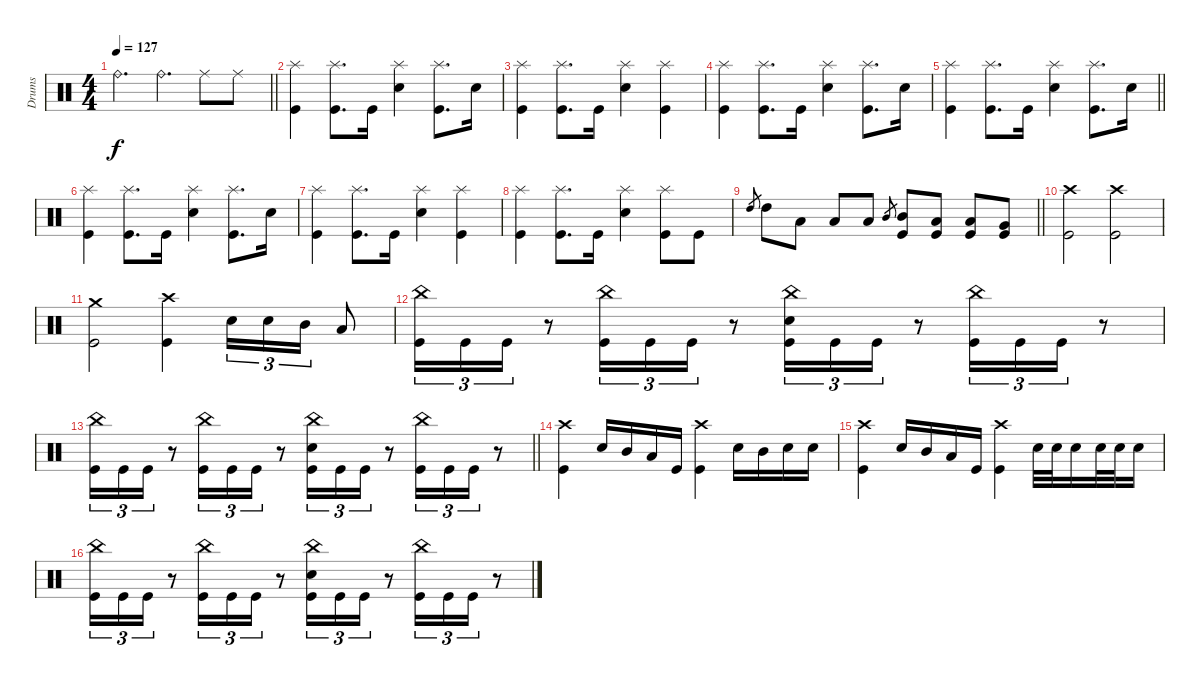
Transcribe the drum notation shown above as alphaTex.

\track ("Drums" "Drums") {instrument percussion}
\staff
\articulation defaults
\ts (4 4)
\tempo 127
\clef neutral
\barLineRight lightlight
\ks c "Ride (bell)".4{d dy f} "Ride (bell)".4{d} "Ride (middle)".8 "Ride (middle)".8
|
\section ("" "")
("Splash (hit)" "Kick (hit)").4 ("Splash (hit)" "Kick (hit)").8{d} "Kick (hit)".16 ("Splash (hit)" "Electric Snare (hit)").4 ("Splash (hit)" "Kick (hit)").8{d} "Electric Snare (hit)".16 |
("Splash (hit)" "Kick (hit)").4 ("Splash (hit)" "Kick (hit)").8{d} "Kick (hit)".16 ("Splash (hit)" "Electric Snare (hit)").4 ("Splash (hit)" "Kick (hit)").4 |
("Splash (hit)" "Kick (hit)").4 ("Splash (hit)" "Kick (hit)").8{d} "Kick (hit)".16 ("Splash (hit)" "Electric Snare (hit)").4 ("Splash (hit)" "Kick (hit)").8{d} "Electric Snare (hit)".16 |
\barLineRight lightlight
("Splash (hit)" "Kick (hit)").4 ("Splash (hit)" "Kick (hit)").8{d} "Kick (hit)".16 ("Splash (hit)" "Electric Snare (hit)").4 ("Splash (hit)" "Kick (hit)").8{d} "Electric Snare (hit)".16 |
("Splash (hit)" "Kick (hit)").4 ("Splash (hit)" "Kick (hit)").8{d} "Kick (hit)".16 ("Splash (hit)" "Electric Snare (hit)").4 ("Splash (hit)" "Kick (hit)").8{d} "Electric Snare (hit)".16 |
("Splash (hit)" "Kick (hit)").4 ("Splash (hit)" "Kick (hit)").8{d} "Kick (hit)".16 ("Splash (hit)" "Electric Snare (hit)").4 ("Splash (hit)" "Kick (hit)").4 |
("Splash (hit)" "Kick (hit)").4 ("Splash (hit)" "Kick (hit)").8{d} "Kick (hit)".16 ("Splash (hit)" "Electric Snare (hit)").4 ("Splash (hit)" "Kick (hit)").8 "Kick (hit)".8 |
\barLineRight lightlight "High Tom (hit)".8{gr} "High Tom (hit)".8 "Low Tom (hit)".8 "Low Tom (hit)".8 "Low Tom (hit)".8 "Mid Tom (hit)".8{gr}
("Mid Tom (hit)" "Kick (hit)").8 ("Low Tom (hit)" "Kick (hit)").8 ("Low Tom (hit)" "Kick (hit)").8 ("Very Low Tom (hit)" "Kick (hit)").8 |
\section ("" "")
("Crash high (hit)" "Kick (hit)").2 ("Crash high (hit)" "Kick (hit)").2 |
("Crash medium (hit)" "Kick (hit)").2 ("Crash high (hit)" "Kick (hit)").4 "Electric Snare (hit)".16{tu (3 2)} "Electric Snare (hit)".16{tu (3 2)} "Mid Tom (hit)".16{tu (3 2)} "Low Tom (hit)".8 |
("China (hit)" "Kick (hit)").16{tu (3 2)} "Kick (hit)".16{tu (3 2)} "Kick (hit)".16{tu (3 2)} r.8 ("China (hit)" "Kick (hit)").16{tu (3 2)} "Kick (hit)".16{tu (3 2)} "Kick (hit)".16{tu (3 2)} r.8 ("China (hit)" "Electric Snare (hit)" "Kick (hit)").16{tu (3 2)} "Kick (hit)".16{tu (3 2)} "Kick (hit)".16{tu (3 2)} r.8 ("China (hit)" "Kick (hit)").16{tu (3 2)} "Kick (hit)".16{tu (3 2)} "Kick (hit)".16{tu (3 2)} r.8 |
\barLineRight lightlight
("China (hit)" "Kick (hit)").16{tu (3 2)} "Kick (hit)".16{tu (3 2)} "Kick (hit)".16{tu (3 2)} r.8 ("China (hit)" "Kick (hit)").16{tu (3 2)} "Kick (hit)".16{tu (3 2)} "Kick (hit)".16{tu (3 2)} r.8 ("China (hit)" "Electric Snare (hit)" "Kick (hit)").16{tu (3 2)} "Kick (hit)".16{tu (3 2)} "Kick (hit)".16{tu (3 2)} r.8 ("China (hit)" "Kick (hit)").16{tu (3 2)} "Kick (hit)".16{tu (3 2)} "Kick (hit)".16{tu (3 2)} r.8 |
("Crash high (hit)" "Kick (hit)").4 "Electric Snare (hit)".16 "Mid Tom (hit)".16 "Low Tom (hit)".16 "Kick (hit)".16 ("Crash high (hit)" "Kick (hit)").4 "Electric Snare (hit)".16 "Mid Tom (hit)".16 "Electric Snare (hit)".16 "Electric Snare (hit)".16 |
("Crash high (hit)" "Kick (hit)").4 "Electric Snare (hit)".16 "Mid Tom (hit)".16 "Low Tom (hit)".16 "Kick (hit)".16 ("Crash high (hit)" "Kick (hit)").4 "Electric Snare (hit)".32 "Electric Snare (hit)".32 "Electric Snare (hit)".16 "Electric Snare (hit)".32 "Electric Snare (hit)".32 "Electric Snare (hit)".16 |
("China (hit)" "Kick (hit)").16{tu (3 2)} "Kick (hit)".16{tu (3 2)} "Kick (hit)".16{tu (3 2)} r.8 ("China (hit)" "Kick (hit)").16{tu (3 2)} "Kick (hit)".16{tu (3 2)} "Kick (hit)".16{tu (3 2)} r.8 ("China (hit)" "Electric Snare (hit)" "Kick (hit)").16{tu (3 2)} "Kick (hit)".16{tu (3 2)} "Kick (hit)".16{tu (3 2)} r.8 ("China (hit)" "Kick (hit)").16{tu (3 2)} "Kick (hit)".16{tu (3 2)} "Kick (hit)".16{tu (3 2)} r.8
